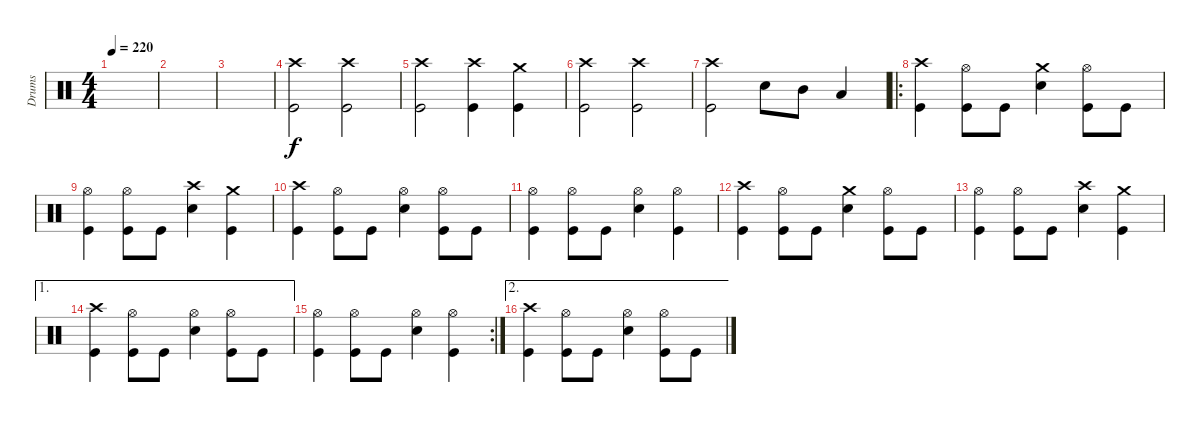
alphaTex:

\track ("Drums" "Drums") {instrument percussion}
\staff {score}
\articulation defaults
\ts (4 4)
\tempo 220
\clef neutral
\ks c
|
|
|
("Crash high (hit)" "Kick (hit)").2 ("Crash high (hit)" "Kick (hit)").2 |
("Crash high (hit)" "Kick (hit)").2 ("Crash high (hit)" "Kick (hit)").4 ("Crash medium (hit)" "Kick (hit)").4 |
("Crash high (hit)" "Kick (hit)").2 ("Crash high (hit)" "Kick (hit)").2 |
("Crash high (hit)" "Kick (hit)").2 "Snare (hit) 2".8 "Mid Tom (hit)".8 "Low Tom (hit)".4 |
\ro
("Crash high (hit)" "Kick (hit)").4 ("Hi-Hat (open)" "Kick (hit)").8 "Kick (hit)".8 ("Crash medium (hit)" "Snare (hit) 2").4 ("Hi-Hat (open)" "Kick (hit)").8 "Kick (hit)".8 |
("Hi-Hat (open)" "Kick (hit)").4 ("Hi-Hat (open)" "Kick (hit)").8 "Kick (hit)".8 ("Crash high (hit)" "Snare (hit) 2").4 ("Crash medium (hit)" "Kick (hit)").4 |
("Crash high (hit)" "Kick (hit)").4 ("Hi-Hat (open)" "Kick (hit)").8 "Kick (hit)".8 ("Hi-Hat (open)" "Snare (hit) 2").4 ("Hi-Hat (open)" "Kick (hit)").8 "Kick (hit)".8 |
("Hi-Hat (open)" "Kick (hit)").4 ("Hi-Hat (open)" "Kick (hit)").8 "Kick (hit)".8 ("Hi-Hat (open)" "Snare (hit) 2").4 ("Hi-Hat (open)" "Kick (hit)").4 |
("Crash high (hit)" "Kick (hit)").4 ("Hi-Hat (open)" "Kick (hit)").8 "Kick (hit)".8 ("Crash medium (hit)" "Snare (hit) 2").4 ("Hi-Hat (open)" "Kick (hit)").8 "Kick (hit)".8 |
("Hi-Hat (open)" "Kick (hit)").4 ("Hi-Hat (open)" "Kick (hit)").8 "Kick (hit)".8 ("Crash high (hit)" "Snare (hit) 2").4 ("Crash medium (hit)" "Kick (hit)").4 |
\ae 1
("Crash high (hit)" "Kick (hit)").4 ("Hi-Hat (open)" "Kick (hit)").8 "Kick (hit)".8 ("Hi-Hat (open)" "Snare (hit) 2").4 ("Hi-Hat (open)" "Kick (hit)").8 "Kick (hit)".8 |
\rc 2
("Hi-Hat (open)" "Kick (hit)").4 ("Hi-Hat (open)" "Kick (hit)").8 "Kick (hit)".8 ("Hi-Hat (open)" "Snare (hit) 2").4 ("Hi-Hat (open)" "Kick (hit)").4 |
\ae 2
("Crash high (hit)" "Kick (hit)").4 ("Hi-Hat (open)" "Kick (hit)").8 "Kick (hit)".8 ("Hi-Hat (open)" "Snare (hit) 2").4 ("Hi-Hat (open)" "Kick (hit)").8 "Kick (hit)".8
